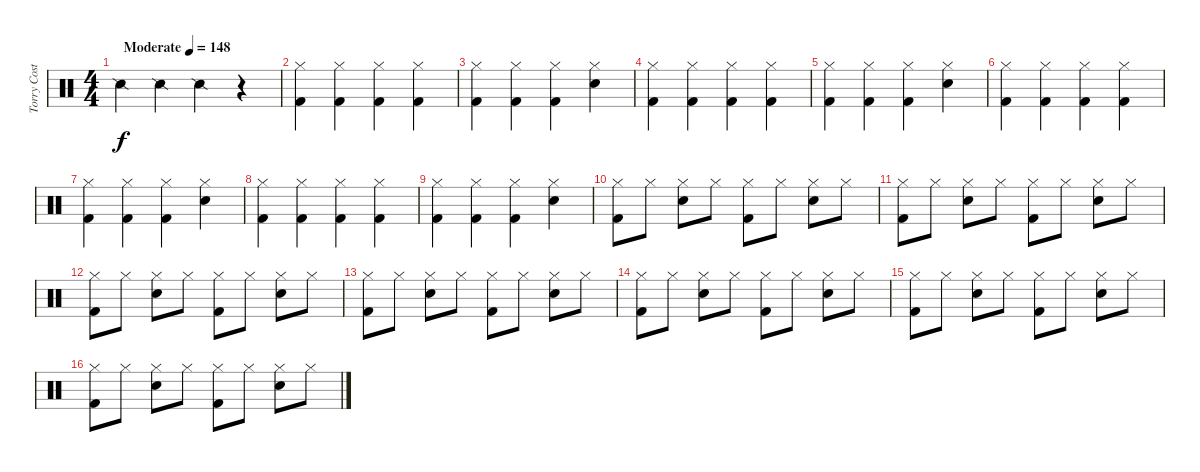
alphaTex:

\track ("Torry Costellano" "Torry Cost") {instrument percussion bank 127}
\staff {score}
\articulation defaults
\ts (4 4)
\tempo (148 "Moderate")
\clef neutral
\ks c "Snare (side stick) 2".4{dy f} "Snare (side stick) 2".4 "Snare (side stick) 2".4
r.4 |
("Hi-Hat (closed)" "Kick (hit) 2").4 ("Hi-Hat (closed)" "Kick (hit) 2").4 ("Hi-Hat (closed)" "Kick (hit) 2").4 ("Hi-Hat (closed)" "Kick (hit) 2").4 |
("Hi-Hat (closed)" "Kick (hit) 2").4 ("Hi-Hat (closed)" "Kick (hit) 2").4 ("Hi-Hat (closed)" "Kick (hit) 2").4 ("Hi-Hat (closed)" "Electric Snare (hit)").4 |
("Hi-Hat (closed)" "Kick (hit) 2").4 ("Hi-Hat (closed)" "Kick (hit) 2").4 ("Hi-Hat (closed)" "Kick (hit) 2").4 ("Hi-Hat (closed)" "Kick (hit) 2").4 |
("Hi-Hat (closed)" "Kick (hit) 2").4 ("Hi-Hat (closed)" "Kick (hit) 2").4 ("Hi-Hat (closed)" "Kick (hit) 2").4 ("Hi-Hat (closed)" "Electric Snare (hit)").4 |
("Hi-Hat (closed)" "Kick (hit) 2").4 ("Hi-Hat (closed)" "Kick (hit) 2").4 ("Hi-Hat (closed)" "Kick (hit) 2").4 ("Hi-Hat (closed)" "Kick (hit) 2").4 |
("Hi-Hat (closed)" "Kick (hit) 2").4 ("Hi-Hat (closed)" "Kick (hit) 2").4 ("Hi-Hat (closed)" "Kick (hit) 2").4 ("Hi-Hat (closed)" "Electric Snare (hit)").4 |
("Hi-Hat (closed)" "Kick (hit) 2").4 ("Hi-Hat (closed)" "Kick (hit) 2").4 ("Hi-Hat (closed)" "Kick (hit) 2").4 ("Hi-Hat (closed)" "Kick (hit) 2").4 |
("Hi-Hat (closed)" "Kick (hit) 2").4 ("Hi-Hat (closed)" "Kick (hit) 2").4 ("Hi-Hat (closed)" "Kick (hit) 2").4 ("Hi-Hat (closed)" "Electric Snare (hit)").4 |
("Hi-Hat (closed)" "Kick (hit) 2").8 "Hi-Hat (closed)".8 ("Hi-Hat (closed)" "Electric Snare (hit)").8 "Hi-Hat (closed)".8 ("Hi-Hat (closed)" "Kick (hit) 2").8 "Hi-Hat (closed)".8 ("Hi-Hat (closed)" "Electric Snare (hit)").8 "Hi-Hat (closed)".8 |
("Hi-Hat (closed)" "Kick (hit) 2").8 "Hi-Hat (closed)".8 ("Hi-Hat (closed)" "Electric Snare (hit)").8 "Hi-Hat (closed)".8 ("Hi-Hat (closed)" "Kick (hit) 2").8 "Hi-Hat (closed)".8 ("Hi-Hat (closed)" "Electric Snare (hit)").8 "Hi-Hat (closed)".8 |
("Hi-Hat (closed)" "Kick (hit) 2").8 "Hi-Hat (closed)".8 ("Hi-Hat (closed)" "Electric Snare (hit)").8 "Hi-Hat (closed)".8 ("Hi-Hat (closed)" "Kick (hit) 2").8 "Hi-Hat (closed)".8 ("Hi-Hat (closed)" "Electric Snare (hit)").8 "Hi-Hat (closed)".8 |
("Hi-Hat (closed)" "Kick (hit) 2").8 "Hi-Hat (closed)".8 ("Hi-Hat (closed)" "Electric Snare (hit)").8 "Hi-Hat (closed)".8 ("Hi-Hat (closed)" "Kick (hit) 2").8 "Hi-Hat (closed)".8 ("Hi-Hat (closed)" "Electric Snare (hit)").8 "Hi-Hat (closed)".8 |
("Hi-Hat (closed)" "Kick (hit) 2").8 "Hi-Hat (closed)".8 ("Hi-Hat (closed)" "Electric Snare (hit)").8 "Hi-Hat (closed)".8 ("Hi-Hat (closed)" "Kick (hit) 2").8 "Hi-Hat (closed)".8 ("Hi-Hat (closed)" "Electric Snare (hit)").8 "Hi-Hat (closed)".8 |
("Hi-Hat (closed)" "Kick (hit) 2").8 "Hi-Hat (closed)".8 ("Hi-Hat (closed)" "Electric Snare (hit)").8 "Hi-Hat (closed)".8 ("Hi-Hat (closed)" "Kick (hit) 2").8 "Hi-Hat (closed)".8 ("Hi-Hat (closed)" "Electric Snare (hit)").8 "Hi-Hat (closed)".8 |
("Hi-Hat (closed)" "Kick (hit) 2").8 "Hi-Hat (closed)".8 ("Hi-Hat (closed)" "Electric Snare (hit)").8 "Hi-Hat (closed)".8 ("Hi-Hat (closed)" "Kick (hit) 2").8 "Hi-Hat (closed)".8 ("Hi-Hat (closed)" "Electric Snare (hit)").8 "Hi-Hat (closed)".8
